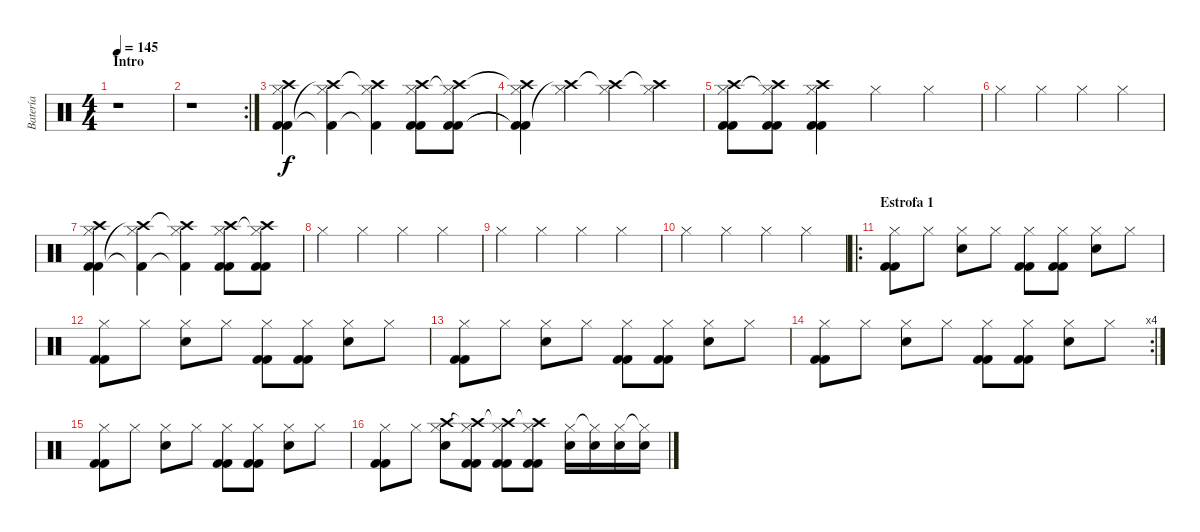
\track ("Batería" "Batería") {instrument percussion}
\staff {score}
\articulation defaults
\ts (4 4)
\section ("" "Intro")
\tempo 145
\clef neutral
\ks c
r.1{dy f} |
\rc 2
r.1 |
("Kick (hit) 2" "Kick (hit) 2" "Crash high (hit)" "Hi-Hat (closed)").4 ("Kick (hit) 2"{t} "Crash high (hit)"{t} "Hi-Hat (closed)").4 ("Kick (hit) 2"{t} "Crash high (hit)"{t} "Hi-Hat (closed)").4 ("Kick (hit) 2" "Kick (hit) 2" "Crash high (hit)" "Hi-Hat (closed)").8 ("Kick (hit) 2" "Kick (hit) 2" "Crash high (hit)" "Hi-Hat (closed)"{t}).8 |
("Kick (hit) 2"{t} "Kick (hit) 2"{t} "Crash high (hit)"{t} "Hi-Hat (closed)").4 ("Crash high (hit)"{t} "Hi-Hat (closed)").4 ("Crash high (hit)"{t} "Hi-Hat (closed)").4 ("Crash high (hit)"{t} "Hi-Hat (closed)").4 |
("Kick (hit) 2" "Kick (hit) 2" "Crash high (hit)" "Hi-Hat (closed)").8 ("Kick (hit) 2" "Kick (hit) 2" "Crash high (hit)" "Hi-Hat (closed)"{t}).8 ("Kick (hit) 2" "Kick (hit) 2" "Crash high (hit)" "Hi-Hat (closed)").4 "Hi-Hat (closed)".4 "Hi-Hat (closed)".4 |
"Hi-Hat (closed)".4 "Hi-Hat (closed)".4 "Hi-Hat (closed)".4 "Hi-Hat (closed)".4 |
("Kick (hit) 2" "Kick (hit) 2" "Crash high (hit)" "Hi-Hat (closed)").4 ("Kick (hit) 2"{t} "Crash high (hit)"{t} "Hi-Hat (closed)").4 ("Kick (hit) 2"{t} "Crash high (hit)"{t} "Hi-Hat (closed)").4 ("Kick (hit) 2" "Kick (hit) 2" "Crash high (hit)" "Hi-Hat (closed)").8 ("Kick (hit) 2" "Kick (hit) 2" "Crash high (hit)" "Hi-Hat (closed)"{t}).8 |
"Hi-Hat (closed)".4 "Hi-Hat (closed)".4 "Hi-Hat (closed)".4 "Hi-Hat (closed)".4 |
"Hi-Hat (closed)".4 "Hi-Hat (closed)".4 "Hi-Hat (closed)".4 "Hi-Hat (closed)".4 |
"Hi-Hat (closed)".4 "Hi-Hat (closed)".4 "Hi-Hat (closed)".4 "Hi-Hat (closed)".4 |
\ro
\section ("" "Estrofa 1")
("Kick (hit) 2" "Kick (hit) 2" "Hi-Hat (closed)").8 "Hi-Hat (closed)".8 ("Snare (hit) 2" "Hi-Hat (closed)").8 "Hi-Hat (closed)".8 ("Kick (hit) 2" "Kick (hit) 2" "Hi-Hat (closed)").8 ("Kick (hit) 2" "Kick (hit) 2" "Hi-Hat (closed)").8 ("Snare (hit) 2" "Hi-Hat (closed)").8 "Hi-Hat (closed)".8 |
("Kick (hit) 2" "Kick (hit) 2" "Hi-Hat (closed)").8 "Hi-Hat (closed)".8 ("Snare (hit) 2" "Hi-Hat (closed)").8 "Hi-Hat (closed)".8 ("Kick (hit) 2" "Kick (hit) 2" "Hi-Hat (closed)").8 ("Kick (hit) 2" "Kick (hit) 2" "Hi-Hat (closed)").8 ("Snare (hit) 2" "Hi-Hat (closed)").8 "Hi-Hat (closed)".8 |
("Kick (hit) 2" "Kick (hit) 2" "Hi-Hat (closed)").8 "Hi-Hat (closed)".8 ("Snare (hit) 2" "Hi-Hat (closed)").8 "Hi-Hat (closed)".8 ("Kick (hit) 2" "Kick (hit) 2" "Hi-Hat (closed)").8 ("Kick (hit) 2" "Kick (hit) 2" "Hi-Hat (closed)").8 ("Snare (hit) 2" "Hi-Hat (closed)").8 "Hi-Hat (closed)".8 |
\rc 4
("Kick (hit) 2" "Kick (hit) 2" "Hi-Hat (closed)").8 "Hi-Hat (closed)".8 ("Snare (hit) 2" "Hi-Hat (closed)").8 "Hi-Hat (closed)".8 ("Kick (hit) 2" "Kick (hit) 2" "Hi-Hat (closed)").8 ("Kick (hit) 2" "Kick (hit) 2" "Hi-Hat (closed)").8 ("Snare (hit) 2" "Hi-Hat (closed)").8 "Hi-Hat (closed)".8 |
("Kick (hit) 2" "Kick (hit) 2" "Hi-Hat (closed)").8 "Hi-Hat (closed)".8 ("Snare (hit) 2" "Hi-Hat (closed)").8 "Hi-Hat (closed)".8 ("Kick (hit) 2" "Kick (hit) 2" "Hi-Hat (closed)").8 ("Kick (hit) 2" "Kick (hit) 2" "Hi-Hat (closed)").8 ("Snare (hit) 2" "Hi-Hat (closed)").8 "Hi-Hat (closed)".8 |
("Kick (hit) 2" "Kick (hit) 2" "Hi-Hat (closed)").8 "Hi-Hat (closed)".8 ("Snare (hit) 2" "Crash high (hit)" "Hi-Hat (closed)").8 ("Kick (hit) 2" "Kick (hit) 2" "Crash high (hit)"{t} "Hi-Hat (closed)").8 ("Kick (hit) 2" "Kick (hit) 2" "Crash high (hit)"{t} "Hi-Hat (closed)").8 ("Kick (hit) 2" "Kick (hit) 2" "Crash high (hit)"{t} "Hi-Hat (closed)").8 ("Snare (hit) 2" "Hi-Hat (closed)").16 ("Snare (hit) 2" "Hi-Hat (closed)"{t}).16 ("Snare (hit) 2" "Hi-Hat (closed)").16 ("Snare (hit) 2" "Hi-Hat (closed)"{t}).16
